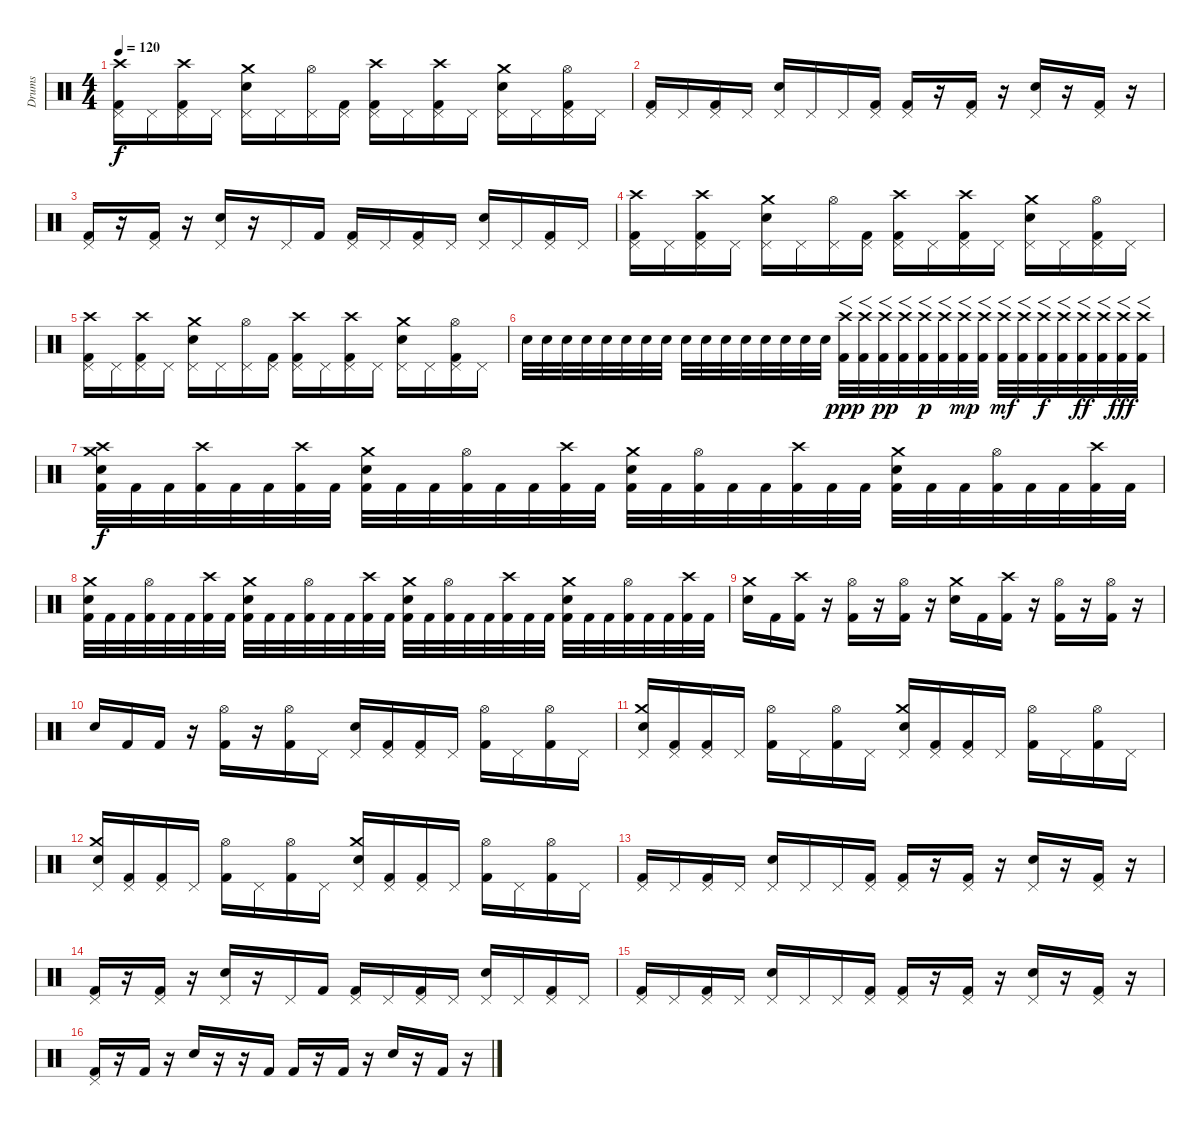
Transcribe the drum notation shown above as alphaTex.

\track ("Drums" "Drums") {instrument percussion}
\staff {score}
\articulation defaults
\ts (4 4)
\tempo 120
\clef neutral
\ks c
("Crash high (hit)" "Pedal Hi-Hat (hit)" "Kick (hit) 2").16{dy f} "Pedal Hi-Hat (hit)".16 ("Crash high (hit)" "Pedal Hi-Hat (hit)" "Kick (hit) 2").16 "Pedal Hi-Hat (hit)".16 ("Crash medium (hit)" "Pedal Hi-Hat (hit)" "Snare (hit) 2").16 "Pedal Hi-Hat (hit)".16 ("Hi-Hat (open)" "Pedal Hi-Hat (hit)").16 ("Pedal Hi-Hat (hit)" "Kick (hit) 2").16 ("Crash high (hit)" "Pedal Hi-Hat (hit)" "Kick (hit) 2").16 "Pedal Hi-Hat (hit)".16 ("Crash high (hit)" "Pedal Hi-Hat (hit)" "Kick (hit) 2").16 "Pedal Hi-Hat (hit)".16 ("Crash medium (hit)" "Pedal Hi-Hat (hit)" "Snare (hit) 2").16 "Pedal Hi-Hat (hit)".16 ("Hi-Hat (open)" "Pedal Hi-Hat (hit)" "Kick (hit) 2").16 "Pedal Hi-Hat (hit)".16 |
("Pedal Hi-Hat (hit)" "Kick (hit) 2").16 "Pedal Hi-Hat (hit)".16 ("Pedal Hi-Hat (hit)" "Kick (hit) 2").16 "Pedal Hi-Hat (hit)".16 ("Pedal Hi-Hat (hit)" "Snare (hit) 2").16 "Pedal Hi-Hat (hit)".16 "Pedal Hi-Hat (hit)".16 ("Pedal Hi-Hat (hit)" "Kick (hit) 2").16 ("Pedal Hi-Hat (hit)" "Kick (hit) 2").16 r.16 ("Pedal Hi-Hat (hit)" "Kick (hit) 2").16 r.16 ("Pedal Hi-Hat (hit)" "Snare (hit) 2").16 r.16 ("Pedal Hi-Hat (hit)" "Kick (hit) 2").16 r.16 |
("Pedal Hi-Hat (hit)" "Kick (hit) 2").16 r.16 ("Pedal Hi-Hat (hit)" "Kick (hit) 2").16 r.16 ("Pedal Hi-Hat (hit)" "Snare (hit) 2").16 r.16 "Pedal Hi-Hat (hit)".16 "Kick (hit) 2".16 ("Pedal Hi-Hat (hit)" "Kick (hit) 2").16 "Pedal Hi-Hat (hit)".16 ("Pedal Hi-Hat (hit)" "Kick (hit) 2").16 "Pedal Hi-Hat (hit)".16 ("Pedal Hi-Hat (hit)" "Snare (hit) 2").16 "Pedal Hi-Hat (hit)".16 ("Pedal Hi-Hat (hit)" "Kick (hit) 2").16 "Pedal Hi-Hat (hit)".16 |
("Crash high (hit)" "Pedal Hi-Hat (hit)" "Kick (hit) 2").16 "Pedal Hi-Hat (hit)".16 ("Crash high (hit)" "Pedal Hi-Hat (hit)" "Kick (hit) 2").16 "Pedal Hi-Hat (hit)".16 ("Crash medium (hit)" "Pedal Hi-Hat (hit)" "Snare (hit) 2").16 "Pedal Hi-Hat (hit)".16 ("Hi-Hat (open)" "Pedal Hi-Hat (hit)").16 ("Pedal Hi-Hat (hit)" "Kick (hit) 2").16 ("Crash high (hit)" "Pedal Hi-Hat (hit)" "Kick (hit) 2").16 "Pedal Hi-Hat (hit)".16 ("Crash high (hit)" "Pedal Hi-Hat (hit)" "Kick (hit) 2").16 "Pedal Hi-Hat (hit)".16 ("Crash medium (hit)" "Pedal Hi-Hat (hit)" "Snare (hit) 2").16 "Pedal Hi-Hat (hit)".16 ("Hi-Hat (open)" "Pedal Hi-Hat (hit)" "Kick (hit) 2").16 "Pedal Hi-Hat (hit)".16 |
("Crash high (hit)" "Pedal Hi-Hat (hit)" "Kick (hit) 2").16 "Pedal Hi-Hat (hit)".16 ("Crash high (hit)" "Pedal Hi-Hat (hit)" "Kick (hit) 2").16 "Pedal Hi-Hat (hit)".16 ("Crash medium (hit)" "Pedal Hi-Hat (hit)" "Snare (hit) 2").16 "Pedal Hi-Hat (hit)".16 ("Hi-Hat (open)" "Pedal Hi-Hat (hit)").16 ("Pedal Hi-Hat (hit)" "Kick (hit) 2").16 ("Crash high (hit)" "Pedal Hi-Hat (hit)" "Kick (hit) 2").16 "Pedal Hi-Hat (hit)".16 ("Crash high (hit)" "Pedal Hi-Hat (hit)" "Kick (hit) 2").16 "Pedal Hi-Hat (hit)".16 ("Crash medium (hit)" "Pedal Hi-Hat (hit)" "Snare (hit) 2").16 "Pedal Hi-Hat (hit)".16 ("Hi-Hat (open)" "Pedal Hi-Hat (hit)" "Kick (hit) 2").16 "Pedal Hi-Hat (hit)".16 |
"Snare (hit) 2".32 "Snare (hit) 2".32 "Snare (hit) 2".32 "Snare (hit) 2".32 "Snare (hit) 2".32 "Snare (hit) 2".32 "Snare (hit) 2".32 "Snare (hit) 2".32 "Snare (hit) 2".32 "Snare (hit) 2".32 "Snare (hit) 2".32 "Snare (hit) 2".32 "Snare (hit) 2".32 "Snare (hit) 2".32 "Snare (hit) 2".32 "Snare (hit) 2".32 ("Crash high (hit)" "Kick (hit) 2").32{f dy ppp} ("Crash high (hit)" "Kick (hit) 2").32{f} ("Crash high (hit)" "Kick (hit) 2").32{f dy pp} ("Crash high (hit)" "Kick (hit) 2").32{f} ("Crash high (hit)" "Kick (hit) 2").32{f dy p} ("Crash high (hit)" "Kick (hit) 2").32{f} ("Crash high (hit)" "Kick (hit) 2").32{f dy mp} ("Crash high (hit)" "Kick (hit) 2").32{f} ("Crash high (hit)" "Kick (hit) 2").32{f dy mf} ("Crash high (hit)" "Kick (hit) 2").32{f} ("Crash high (hit)" "Kick (hit) 2").32{f dy f} ("Crash high (hit)" "Kick (hit) 2").32{f} ("Crash high (hit)" "Kick (hit) 2").32{f dy ff} ("Crash high (hit)" "Kick (hit) 2").32{f} ("Crash high (hit)" "Kick (hit) 2").32{f dy fff} ("Crash high (hit)" "Kick (hit) 2").32{f} |
("Crash medium (hit)" "Crash high (hit)" "Snare (hit) 2" "Kick (hit) 2").32{dy f} "Kick (hit) 2".32 "Kick (hit) 2".32 ("Crash high (hit)" "Kick (hit) 2").32 "Kick (hit) 2".32 "Kick (hit) 2".32 ("Crash high (hit)" "Kick (hit) 2").32 "Kick (hit) 2".32 ("Crash medium (hit)" "Snare (hit) 2" "Kick (hit) 2").32 "Kick (hit) 2".32 "Kick (hit) 2".32 ("Hi-Hat (open)" "Kick (hit) 2").32 "Kick (hit) 2".32 "Kick (hit) 2".32 ("Crash high (hit)" "Kick (hit) 2").32 "Kick (hit) 2".32 ("Crash medium (hit)" "Snare (hit) 2" "Kick (hit) 2").32 "Kick (hit) 2".32 ("Hi-Hat (open)" "Kick (hit) 2").32 "Kick (hit) 2".32 "Kick (hit) 2".32 ("Crash high (hit)" "Kick (hit) 2").32 "Kick (hit) 2".32 "Kick (hit) 2".32 ("Crash medium (hit)" "Snare (hit) 2" "Kick (hit) 2").32 "Kick (hit) 2".32 "Kick (hit) 2".32 ("Hi-Hat (open)" "Kick (hit) 2").32 "Kick (hit) 2".32 "Kick (hit) 2".32 ("Crash high (hit)" "Kick (hit) 2").32 "Kick (hit) 2".32 |
("Crash medium (hit)" "Snare (hit) 2" "Kick (hit) 2").32 "Kick (hit) 2".32 "Kick (hit) 2".32 ("Hi-Hat (open)" "Kick (hit) 2").32 "Kick (hit) 2".32 "Kick (hit) 2".32 ("Crash high (hit)" "Kick (hit) 2").32 "Kick (hit) 2".32 ("Crash medium (hit)" "Snare (hit) 2" "Kick (hit) 2").32 "Kick (hit) 2".32 "Kick (hit) 2".32 ("Hi-Hat (open)" "Kick (hit) 2").32 "Kick (hit) 2".32 "Kick (hit) 2".32 ("Crash high (hit)" "Kick (hit) 2").32 "Kick (hit) 2".32 ("Crash medium (hit)" "Snare (hit) 2" "Kick (hit) 2").32 "Kick (hit) 2".32 ("Hi-Hat (open)" "Kick (hit) 2").32 "Kick (hit) 2".32 "Kick (hit) 2".32 ("Crash high (hit)" "Kick (hit) 2").32 "Kick (hit) 2".32 "Kick (hit) 2".32 ("Crash medium (hit)" "Snare (hit) 2" "Kick (hit) 2").32 "Kick (hit) 2".32 "Kick (hit) 2".32 ("Hi-Hat (open)" "Kick (hit) 2").32 "Kick (hit) 2".32 "Kick (hit) 2".32 ("Crash high (hit)" "Kick (hit) 2").32 "Kick (hit) 2".32 |
("Crash medium (hit)" "Snare (hit) 2").16 "Kick (hit) 2".16 ("Crash high (hit)" "Kick (hit) 2").16 r.16 ("Hi-Hat (open)" "Kick (hit) 2").16 r.16 ("Hi-Hat (open)" "Kick (hit) 2").16 r.16 ("Crash medium (hit)" "Snare (hit) 2").16 "Kick (hit) 2".16 ("Crash high (hit)" "Kick (hit) 2").16 r.16 ("Hi-Hat (open)" "Kick (hit) 2").16 r.16 ("Hi-Hat (open)" "Kick (hit) 2").16 r.16 |
"Snare (hit) 2".16 "Kick (hit) 2".16 "Kick (hit) 2".16 r.16 ("Hi-Hat (open)" "Kick (hit) 2").16 r.16 ("Hi-Hat (open)" "Kick (hit) 2").16 "Pedal Hi-Hat (hit)".16 ("Pedal Hi-Hat (hit)" "Snare (hit) 2").16 ("Pedal Hi-Hat (hit)" "Kick (hit) 2").16 ("Pedal Hi-Hat (hit)" "Kick (hit) 2").16 "Pedal Hi-Hat (hit)".16 ("Hi-Hat (open)" "Kick (hit) 2").16 "Pedal Hi-Hat (hit)".16 ("Hi-Hat (open)" "Kick (hit) 2").16 "Pedal Hi-Hat (hit)".16 |
("Crash medium (hit)" "Pedal Hi-Hat (hit)" "Snare (hit) 2").16 ("Pedal Hi-Hat (hit)" "Kick (hit) 2").16 ("Pedal Hi-Hat (hit)" "Kick (hit) 2").16 "Pedal Hi-Hat (hit)".16 ("Hi-Hat (open)" "Kick (hit) 2").16 "Pedal Hi-Hat (hit)".16 ("Hi-Hat (open)" "Kick (hit) 2").16 "Pedal Hi-Hat (hit)".16 ("Crash medium (hit)" "Pedal Hi-Hat (hit)" "Snare (hit) 2").16 ("Pedal Hi-Hat (hit)" "Kick (hit) 2").16 ("Pedal Hi-Hat (hit)" "Kick (hit) 2").16 "Pedal Hi-Hat (hit)".16 ("Hi-Hat (open)" "Kick (hit) 2").16 "Pedal Hi-Hat (hit)".16 ("Hi-Hat (open)" "Kick (hit) 2").16 "Pedal Hi-Hat (hit)".16 |
("Crash medium (hit)" "Pedal Hi-Hat (hit)" "Snare (hit) 2").16 ("Pedal Hi-Hat (hit)" "Kick (hit) 2").16 ("Pedal Hi-Hat (hit)" "Kick (hit) 2").16 "Pedal Hi-Hat (hit)".16 ("Hi-Hat (open)" "Kick (hit) 2").16 "Pedal Hi-Hat (hit)".16 ("Hi-Hat (open)" "Kick (hit) 2").16 "Pedal Hi-Hat (hit)".16 ("Crash medium (hit)" "Pedal Hi-Hat (hit)" "Snare (hit) 2").16 ("Pedal Hi-Hat (hit)" "Kick (hit) 2").16 ("Pedal Hi-Hat (hit)" "Kick (hit) 2").16 "Pedal Hi-Hat (hit)".16 ("Hi-Hat (open)" "Kick (hit) 2").16 "Pedal Hi-Hat (hit)".16 ("Hi-Hat (open)" "Kick (hit) 2").16 "Pedal Hi-Hat (hit)".16 |
("Pedal Hi-Hat (hit)" "Kick (hit) 2").16 "Pedal Hi-Hat (hit)".16 ("Pedal Hi-Hat (hit)" "Kick (hit) 2").16 "Pedal Hi-Hat (hit)".16 ("Pedal Hi-Hat (hit)" "Snare (hit) 2").16 "Pedal Hi-Hat (hit)".16 "Pedal Hi-Hat (hit)".16 ("Pedal Hi-Hat (hit)" "Kick (hit) 2").16 ("Pedal Hi-Hat (hit)" "Kick (hit) 2").16 r.16 ("Pedal Hi-Hat (hit)" "Kick (hit) 2").16 r.16 ("Pedal Hi-Hat (hit)" "Snare (hit) 2").16 r.16 ("Pedal Hi-Hat (hit)" "Kick (hit) 2").16 r.16 |
("Pedal Hi-Hat (hit)" "Kick (hit) 2").16 r.16 ("Pedal Hi-Hat (hit)" "Kick (hit) 2").16 r.16 ("Pedal Hi-Hat (hit)" "Snare (hit) 2").16 r.16 "Pedal Hi-Hat (hit)".16 "Kick (hit) 2".16 ("Pedal Hi-Hat (hit)" "Kick (hit) 2").16 "Pedal Hi-Hat (hit)".16 ("Pedal Hi-Hat (hit)" "Kick (hit) 2").16 "Pedal Hi-Hat (hit)".16 ("Pedal Hi-Hat (hit)" "Snare (hit) 2").16 "Pedal Hi-Hat (hit)".16 ("Pedal Hi-Hat (hit)" "Kick (hit) 2").16 "Pedal Hi-Hat (hit)".16 |
("Pedal Hi-Hat (hit)" "Kick (hit) 2").16 "Pedal Hi-Hat (hit)".16 ("Pedal Hi-Hat (hit)" "Kick (hit) 2").16 "Pedal Hi-Hat (hit)".16 ("Pedal Hi-Hat (hit)" "Snare (hit) 2").16 "Pedal Hi-Hat (hit)".16 "Pedal Hi-Hat (hit)".16 ("Pedal Hi-Hat (hit)" "Kick (hit) 2").16 ("Pedal Hi-Hat (hit)" "Kick (hit) 2").16 r.16 ("Pedal Hi-Hat (hit)" "Kick (hit) 2").16 r.16 ("Pedal Hi-Hat (hit)" "Snare (hit) 2").16 r.16 ("Pedal Hi-Hat (hit)" "Kick (hit) 2").16 r.16 |
("Pedal Hi-Hat (hit)" "Kick (hit) 2").16 r.16 "Kick (hit) 2".16 r.16 "Snare (hit) 2".16 r.16 r.16 "Kick (hit) 2".16 "Kick (hit) 2".16 r.16 "Kick (hit) 2".16 r.16 "Snare (hit) 2".16 r.16 "Kick (hit) 2".16 r.16
